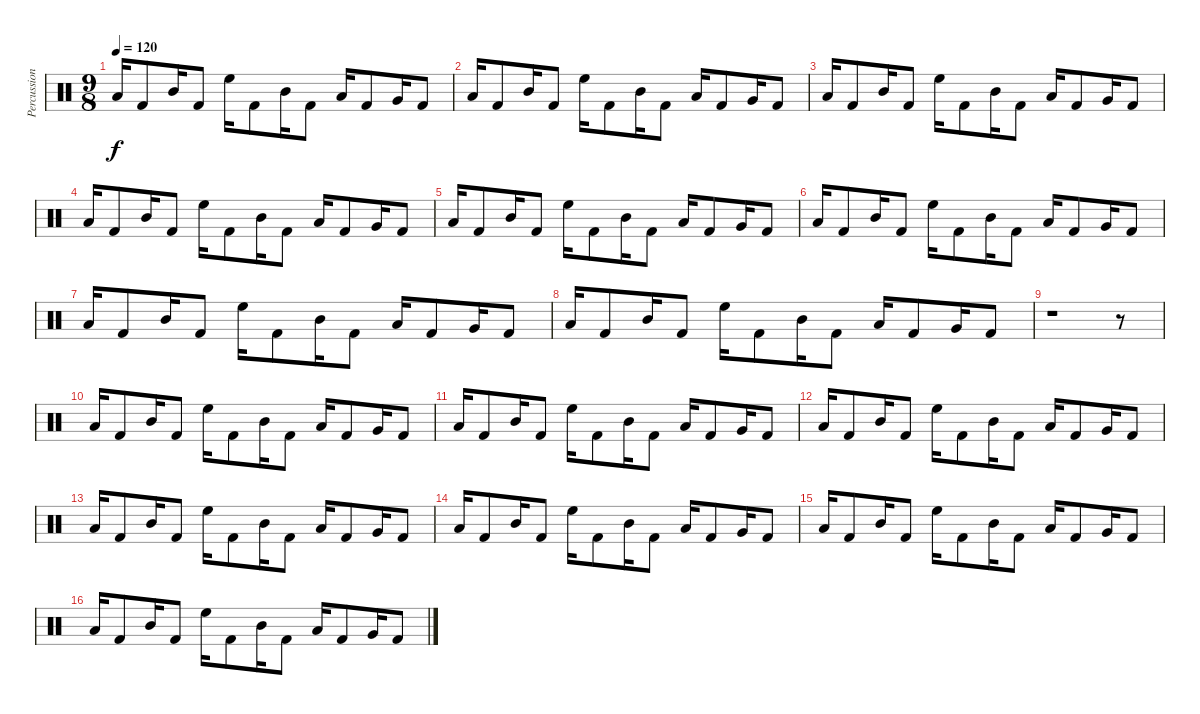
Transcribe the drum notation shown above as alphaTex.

\track ("Percussion" "Percussion") {instrument percussion}
\staff {score}
\articulation defaults
\ts (9 8)
\tempo 120
\clef neutral
\ks c "Low Tom (hit)".16{dy f} "Kick (hit) 2".8 "Mid Tom (hit)".16 "Kick (hit) 2".8 "High Floor Tom (hit)".16 "Kick (hit) 2".8 "Mid Tom (hit)".16 "Kick (hit) 2".8 "Low Tom (hit)".16 "Kick (hit) 2".8 "Very Low Tom (hit)".16 "Kick (hit) 2".8
|
"Low Tom (hit)".16 "Kick (hit) 2".8 "Mid Tom (hit)".16 "Kick (hit) 2".8 "High Floor Tom (hit)".16 "Kick (hit) 2".8 "Mid Tom (hit)".16 "Kick (hit) 2".8 "Low Tom (hit)".16 "Kick (hit) 2".8 "Very Low Tom (hit)".16 "Kick (hit) 2".8 |
"Low Tom (hit)".16 "Kick (hit) 2".8 "Mid Tom (hit)".16 "Kick (hit) 2".8 "High Floor Tom (hit)".16 "Kick (hit) 2".8 "Mid Tom (hit)".16 "Kick (hit) 2".8 "Low Tom (hit)".16 "Kick (hit) 2".8 "Very Low Tom (hit)".16 "Kick (hit) 2".8 |
"Low Tom (hit)".16 "Kick (hit) 2".8 "Mid Tom (hit)".16 "Kick (hit) 2".8 "High Floor Tom (hit)".16 "Kick (hit) 2".8 "Mid Tom (hit)".16 "Kick (hit) 2".8 "Low Tom (hit)".16 "Kick (hit) 2".8 "Very Low Tom (hit)".16 "Kick (hit) 2".8 |
"Low Tom (hit)".16 "Kick (hit) 2".8 "Mid Tom (hit)".16 "Kick (hit) 2".8 "High Floor Tom (hit)".16 "Kick (hit) 2".8 "Mid Tom (hit)".16 "Kick (hit) 2".8 "Low Tom (hit)".16 "Kick (hit) 2".8 "Very Low Tom (hit)".16 "Kick (hit) 2".8 |
"Low Tom (hit)".16 "Kick (hit) 2".8 "Mid Tom (hit)".16 "Kick (hit) 2".8 "High Floor Tom (hit)".16 "Kick (hit) 2".8 "Mid Tom (hit)".16 "Kick (hit) 2".8 "Low Tom (hit)".16 "Kick (hit) 2".8 "Very Low Tom (hit)".16 "Kick (hit) 2".8 |
"Low Tom (hit)".16 "Kick (hit) 2".8 "Mid Tom (hit)".16 "Kick (hit) 2".8 "High Floor Tom (hit)".16 "Kick (hit) 2".8 "Mid Tom (hit)".16 "Kick (hit) 2".8 "Low Tom (hit)".16 "Kick (hit) 2".8 "Very Low Tom (hit)".16 "Kick (hit) 2".8 |
"Low Tom (hit)".16 "Kick (hit) 2".8 "Mid Tom (hit)".16 "Kick (hit) 2".8 "High Floor Tom (hit)".16 "Kick (hit) 2".8 "Mid Tom (hit)".16 "Kick (hit) 2".8 "Low Tom (hit)".16 "Kick (hit) 2".8 "Very Low Tom (hit)".16 "Kick (hit) 2".8 |
r.1 r.8 |
"Low Tom (hit)".16 "Kick (hit) 2".8 "Mid Tom (hit)".16 "Kick (hit) 2".8 "High Floor Tom (hit)".16 "Kick (hit) 2".8 "Mid Tom (hit)".16 "Kick (hit) 2".8 "Low Tom (hit)".16 "Kick (hit) 2".8 "Very Low Tom (hit)".16 "Kick (hit) 2".8 |
"Low Tom (hit)".16 "Kick (hit) 2".8 "Mid Tom (hit)".16 "Kick (hit) 2".8 "High Floor Tom (hit)".16 "Kick (hit) 2".8 "Mid Tom (hit)".16 "Kick (hit) 2".8 "Low Tom (hit)".16 "Kick (hit) 2".8 "Very Low Tom (hit)".16 "Kick (hit) 2".8 |
"Low Tom (hit)".16 "Kick (hit) 2".8 "Mid Tom (hit)".16 "Kick (hit) 2".8 "High Floor Tom (hit)".16 "Kick (hit) 2".8 "Mid Tom (hit)".16 "Kick (hit) 2".8 "Low Tom (hit)".16 "Kick (hit) 2".8 "Very Low Tom (hit)".16 "Kick (hit) 2".8 |
"Low Tom (hit)".16 "Kick (hit) 2".8 "Mid Tom (hit)".16 "Kick (hit) 2".8 "High Floor Tom (hit)".16 "Kick (hit) 2".8 "Mid Tom (hit)".16 "Kick (hit) 2".8 "Low Tom (hit)".16 "Kick (hit) 2".8 "Very Low Tom (hit)".16 "Kick (hit) 2".8 |
"Low Tom (hit)".16 "Kick (hit) 2".8 "Mid Tom (hit)".16 "Kick (hit) 2".8 "High Floor Tom (hit)".16 "Kick (hit) 2".8 "Mid Tom (hit)".16 "Kick (hit) 2".8 "Low Tom (hit)".16 "Kick (hit) 2".8 "Very Low Tom (hit)".16 "Kick (hit) 2".8 |
"Low Tom (hit)".16 "Kick (hit) 2".8 "Mid Tom (hit)".16 "Kick (hit) 2".8 "High Floor Tom (hit)".16 "Kick (hit) 2".8 "Mid Tom (hit)".16 "Kick (hit) 2".8 "Low Tom (hit)".16 "Kick (hit) 2".8 "Very Low Tom (hit)".16 "Kick (hit) 2".8 |
"Low Tom (hit)".16 "Kick (hit) 2".8 "Mid Tom (hit)".16 "Kick (hit) 2".8 "High Floor Tom (hit)".16 "Kick (hit) 2".8 "Mid Tom (hit)".16 "Kick (hit) 2".8 "Low Tom (hit)".16 "Kick (hit) 2".8 "Very Low Tom (hit)".16 "Kick (hit) 2".8
